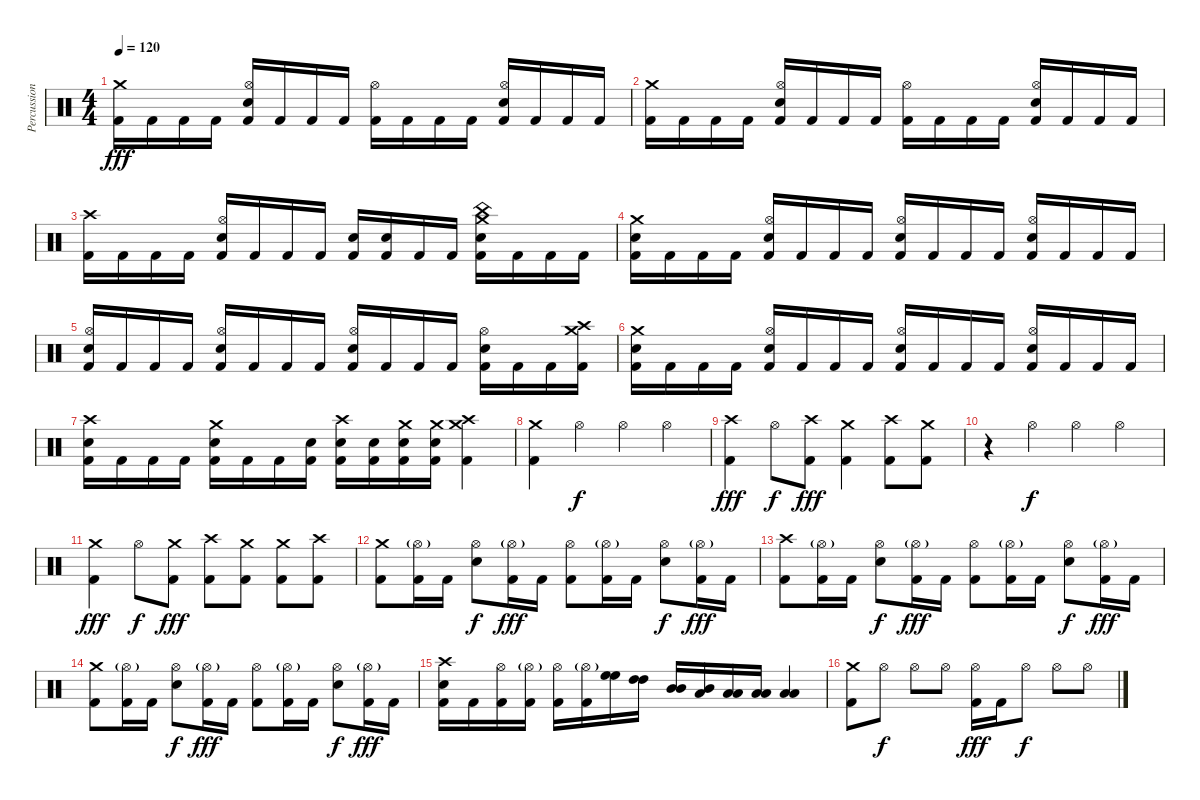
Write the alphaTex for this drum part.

\track ("Percussion" "Percussion") {instrument percussion}
\staff {score}
\articulation defaults
\ts (4 4)
\tempo 120
\clef neutral
\ks c
("Crash medium (hit)" "Kick (hit) 2").16{dy fff} "Kick (hit) 2".16 "Kick (hit) 2".16 "Kick (hit) 2".16 ("Hi-Hat (open)" "Snare (hit) 2" "Kick (hit) 2").16 "Kick (hit) 2".16 "Kick (hit) 2".16 "Kick (hit) 2".16 ("Hi-Hat (open)" "Kick (hit) 2").16 "Kick (hit) 2".16 "Kick (hit) 2".16 "Kick (hit) 2".16 ("Hi-Hat (open)" "Snare (hit) 2" "Kick (hit) 2").16 "Kick (hit) 2".16 "Kick (hit) 2".16 "Kick (hit) 2".16 |
("Crash medium (hit)" "Kick (hit) 2").16 "Kick (hit) 2".16 "Kick (hit) 2".16 "Kick (hit) 2".16 ("Hi-Hat (open)" "Snare (hit) 2" "Kick (hit) 2").16 "Kick (hit) 2".16 "Kick (hit) 2".16 "Kick (hit) 2".16 ("Hi-Hat (open)" "Kick (hit) 2").16 "Kick (hit) 2".16 "Kick (hit) 2".16 "Kick (hit) 2".16 ("Hi-Hat (open)" "Snare (hit) 2" "Kick (hit) 2").16 "Kick (hit) 2".16 "Kick (hit) 2".16 "Kick (hit) 2".16 |
("Crash high (hit)" "Kick (hit) 2").16 "Kick (hit) 2".16 "Kick (hit) 2".16 "Kick (hit) 2".16 ("Hi-Hat (open)" "Snare (hit) 2" "Kick (hit) 2").16 "Kick (hit) 2".16 "Kick (hit) 2".16 "Kick (hit) 2".16 ("Snare (hit) 2" "Kick (hit) 2").16 ("Snare (hit) 2" "Kick (hit) 2").16 "Kick (hit) 2".16 "Kick (hit) 2".16 ("China (hit)" "Crash medium (hit)" "Snare (hit) 2" "Kick (hit) 2").16 "Kick (hit) 2".16 "Kick (hit) 2".16 "Kick (hit) 2".16 |
("Crash medium (hit)" "Snare (hit) 2" "Kick (hit) 2").16 "Kick (hit) 2".16 "Kick (hit) 2".16 "Kick (hit) 2".16 ("Hi-Hat (open)" "Snare (hit) 2" "Kick (hit) 2").16 "Kick (hit) 2".16 "Kick (hit) 2".16 "Kick (hit) 2".16 ("Hi-Hat (open)" "Snare (hit) 2" "Kick (hit) 2").16 "Kick (hit) 2".16 "Kick (hit) 2".16 "Kick (hit) 2".16 ("Hi-Hat (open)" "Snare (hit) 2" "Kick (hit) 2").16 "Kick (hit) 2".16 "Kick (hit) 2".16 "Kick (hit) 2".16 |
("Hi-Hat (open)" "Snare (hit) 2" "Kick (hit) 2").16 "Kick (hit) 2".16 "Kick (hit) 2".16 "Kick (hit) 2".16 ("Hi-Hat (open)" "Snare (hit) 2" "Kick (hit) 2").16 "Kick (hit) 2".16 "Kick (hit) 2".16 "Kick (hit) 2".16 ("Hi-Hat (open)" "Snare (hit) 2" "Kick (hit) 2").16 "Kick (hit) 2".16 "Kick (hit) 2".16 "Kick (hit) 2".16 ("Hi-Hat (open)" "Snare (hit) 2" "Kick (hit) 2").16 "Kick (hit) 2".16 "Kick (hit) 2".16 ("Crash high (hit)" "Crash medium (hit)" "Kick (hit) 2").16 |
("Crash medium (hit)" "Snare (hit) 2" "Kick (hit) 2").16 "Kick (hit) 2".16 "Kick (hit) 2".16 "Kick (hit) 2".16 ("Hi-Hat (open)" "Snare (hit) 2" "Kick (hit) 2").16 "Kick (hit) 2".16 "Kick (hit) 2".16 "Kick (hit) 2".16 ("Hi-Hat (open)" "Snare (hit) 2" "Kick (hit) 2").16 "Kick (hit) 2".16 "Kick (hit) 2".16 "Kick (hit) 2".16 ("Hi-Hat (open)" "Snare (hit) 2" "Kick (hit) 2").16 "Kick (hit) 2".16 "Kick (hit) 2".16 "Kick (hit) 2".16 |
("Crash high (hit)" "Snare (hit) 2" "Kick (hit) 2").16 "Kick (hit) 2".16 "Kick (hit) 2".16 "Kick (hit) 2".16 ("Crash medium (hit)" "Snare (hit) 2" "Kick (hit) 2").16 "Kick (hit) 2".16 "Kick (hit) 2".16 ("Snare (hit) 2" "Kick (hit) 2").16 ("Crash high (hit)" "Snare (hit) 2" "Kick (hit) 2").16 ("Snare (hit) 2" "Kick (hit) 2").16 ("Crash medium (hit)" "Snare (hit) 2" "Kick (hit) 2").16 ("Crash medium (hit)" "Snare (hit) 2" "Kick (hit) 2").16 ("Crash medium (hit)" "Crash high (hit)" "Kick (hit) 2").4 |
("Crash medium (hit)" "Kick (hit) 2").4 "Hi-Hat (open)".4{dy f} "Hi-Hat (open)".4 "Hi-Hat (open)".4 |
("Crash high (hit)" "Kick (hit) 2").4{dy fff} "Hi-Hat (open)".8{dy f} ("Crash high (hit)" "Kick (hit) 2").8{dy fff} ("Crash medium (hit)" "Kick (hit) 2").4 ("Crash high (hit)" "Kick (hit) 2").8 ("Crash medium (hit)" "Kick (hit) 2").8 |
r.4 "Hi-Hat (open)".4{dy f} "Hi-Hat (open)".4 "Hi-Hat (open)".4 |
("Crash medium (hit)" "Kick (hit) 2").4{dy fff} "Hi-Hat (open)".8{dy f} ("Crash medium (hit)" "Kick (hit) 2").8{dy fff} ("Crash high (hit)" "Kick (hit) 2").8 ("Crash medium (hit)" "Kick (hit) 2").8 ("Crash medium (hit)" "Kick (hit) 2").8 ("Crash high (hit)" "Kick (hit) 2").8 |
("Crash medium (hit)" "Kick (hit) 2").8 ("Hi-Hat (open)"{g} "Kick (hit) 2").16 "Kick (hit) 2".16 ("Hi-Hat (open)" "Snare (hit) 2").8{dy f} ("Hi-Hat (open)"{g} "Kick (hit) 2").16{dy fff} "Kick (hit) 2".16 ("Hi-Hat (open)" "Kick (hit) 2").8 ("Hi-Hat (open)"{g} "Kick (hit) 2").16 "Kick (hit) 2".16 ("Hi-Hat (open)" "Snare (hit) 2").8{dy f} ("Hi-Hat (open)"{g} "Kick (hit) 2").16{dy fff} "Kick (hit) 2".16 |
("Crash high (hit)" "Kick (hit) 2").8 ("Hi-Hat (open)"{g} "Kick (hit) 2").16 "Kick (hit) 2".16 ("Hi-Hat (open)" "Snare (hit) 2").8{dy f} ("Hi-Hat (open)"{g} "Kick (hit) 2").16{dy fff} "Kick (hit) 2".16 ("Hi-Hat (open)" "Kick (hit) 2").8 ("Hi-Hat (open)"{g} "Kick (hit) 2").16 "Kick (hit) 2".16 ("Hi-Hat (open)" "Snare (hit) 2").8{dy f} ("Hi-Hat (open)"{g} "Kick (hit) 2").16{dy fff} "Kick (hit) 2".16 |
("Crash medium (hit)" "Kick (hit) 2").8 ("Hi-Hat (open)"{g} "Kick (hit) 2").16 "Kick (hit) 2".16 ("Hi-Hat (open)" "Snare (hit) 2").8{dy f} ("Hi-Hat (open)"{g} "Kick (hit) 2").16{dy fff} "Kick (hit) 2".16 ("Hi-Hat (open)" "Kick (hit) 2").8 ("Hi-Hat (open)"{g} "Kick (hit) 2").16 "Kick (hit) 2".16 ("Hi-Hat (open)" "Snare (hit) 2").8{dy f} ("Hi-Hat (open)"{g} "Kick (hit) 2").16{dy fff} "Kick (hit) 2".16 |
("Crash high (hit)" "Snare (hit) 2" "Kick (hit) 2").16 "Kick (hit) 2".16 ("Hi-Hat (open)" "Kick (hit) 2").16 ("Hi-Hat (open)"{g} "Kick (hit) 2").16 ("Hi-Hat (open)" "Kick (hit) 2").16 ("Hi-Hat (open)"{g} "Kick (hit) 2").16 ("High Floor Tom (hit)" "High Floor Tom (hit)").16 ("High Tom (hit)" "High Tom (hit)").16 ("Mid Tom (hit)" "Mid Tom (hit)").16 ("Mid Tom (hit)" "Low Tom (hit)").16 ("Low Tom (hit)" "Low Tom (hit)").16 ("Low Tom (hit)" "Low Tom (hit)").16 ("Low Tom (hit)" "Low Tom (hit)").4 |
("Crash medium (hit)" "Kick (hit) 2").8 "Hi-Hat (open)".8{dy f} "Hi-Hat (open)".8 "Hi-Hat (open)".8 ("Hi-Hat (open)" "Kick (hit) 2").16{dy fff} "Kick (hit) 2".16 "Hi-Hat (open)".8{dy f} "Hi-Hat (open)".8 "Hi-Hat (open)".8
